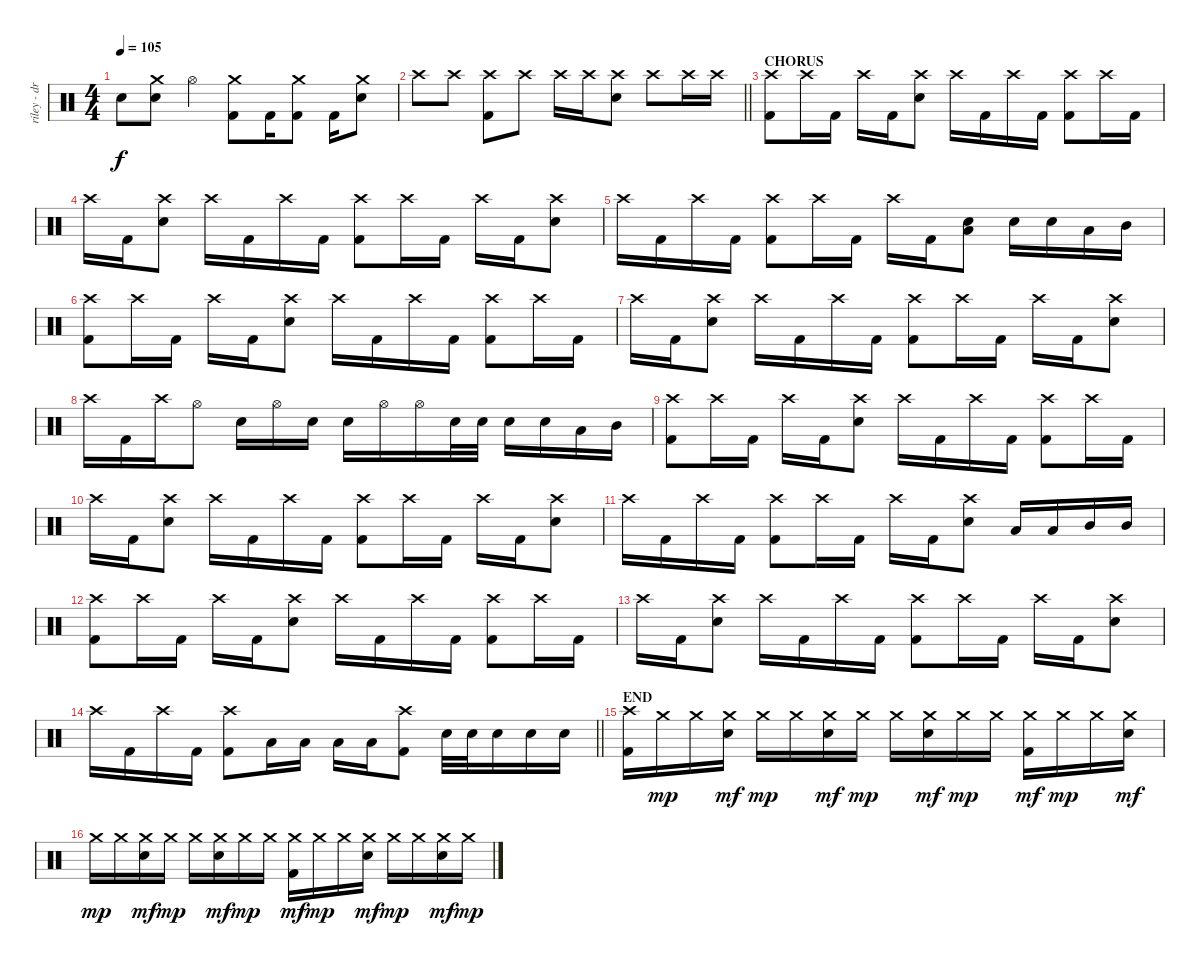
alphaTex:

\track ("riley - drums" "riley - dr") {instrument percussion}
\staff {score}
\articulation defaults
\ts (4 4)
\tempo 105
\clef neutral
\ks c "Snare (hit)"{t}.8{dy f}
("Electric Snare (hit)" "Crash medium (hit)").8 "Hi-Hat (open)".4 ("Crash medium (hit)" "Kick (hit) 2").8 "Kick (hit) 2".16 ("Crash medium (hit)" "Kick (hit) 2").8 "Kick (hit) 2".16 ("Crash medium (hit)" "Electric Snare (hit)").8 |
\barLineRight lightlight "Crash high (hit)".8 "Crash high (hit)".8
("Crash high (hit)" "Kick (hit) 2").8 "Crash high (hit)".8 "Crash high (hit)".16 "Crash high (hit)".16 ("Crash high (hit)" "Electric Snare (hit)").8 "Crash high (hit)".8 "Crash high (hit)".16 "Crash high (hit)".16 |
\section ("" "CHORUS")
("Kick (hit) 2" "Crash high (hit)").8 "Crash high (hit)".16 "Kick (hit) 2".16 "Crash high (hit)".16 "Kick (hit) 2".16 ("Electric Snare (hit)" "Crash high (hit)").8 "Crash high (hit)".16 "Kick (hit) 2".16 "Crash high (hit)".16 "Kick (hit) 2".16 ("Kick (hit) 2" "Crash high (hit)").8 "Crash high (hit)".16 "Kick (hit) 2".16 |
"Crash high (hit)".16 "Kick (hit) 2".16 ("Electric Snare (hit)" "Crash high (hit)").8 "Crash high (hit)".16 "Kick (hit) 2".16 "Crash high (hit)".16 "Kick (hit) 2".16 ("Kick (hit) 2" "Crash high (hit)").8 "Crash high (hit)".16 "Kick (hit) 2".16 "Crash high (hit)".16 "Kick (hit) 2".16 ("Electric Snare (hit)" "Crash high (hit)").8 |
"Crash high (hit)".16 "Kick (hit) 2".16 "Crash high (hit)".16 "Kick (hit) 2".16 ("Kick (hit) 2" "Crash high (hit)").8 "Crash high (hit)".16 "Kick (hit) 2".16 "Crash high (hit)".16 "Kick (hit) 2".16 ("Electric Snare (hit)" "Low Floor Tom (hit)").8 "Electric Snare (hit)".16 "Electric Snare (hit)".16 "Low Tom (hit)".16 "Mid Tom (hit)".16 |
("Kick (hit) 2" "Crash high (hit)").8 "Crash high (hit)".16 "Kick (hit) 2".16 "Crash high (hit)".16 "Kick (hit) 2".16 ("Electric Snare (hit)" "Crash high (hit)").8 "Crash high (hit)".16 "Kick (hit) 2".16 "Crash high (hit)".16 "Kick (hit) 2".16 ("Kick (hit) 2" "Crash high (hit)").8 "Crash high (hit)".16 "Kick (hit) 2".16 |
"Crash high (hit)".16 "Kick (hit) 2".16 ("Electric Snare (hit)" "Crash high (hit)").8 "Crash high (hit)".16 "Kick (hit) 2".16 "Crash high (hit)".16 "Kick (hit) 2".16 ("Kick (hit) 2" "Crash high (hit)").8 "Crash high (hit)".16 "Kick (hit) 2".16 "Crash high (hit)".16 "Kick (hit) 2".16 ("Electric Snare (hit)" "Crash high (hit)").8 |
"Crash high (hit)".16 "Kick (hit) 2".16 "Crash high (hit)".16 "Hi-Hat (open)".8 "Electric Snare (hit)".16 "Hi-Hat (open)".16 "Electric Snare (hit)".16 "Electric Snare (hit)".16 "Hi-Hat (open)".16 "Hi-Hat (open)".16 "Electric Snare (hit)".32 "Electric Snare (hit)".32 "Electric Snare (hit)".16 "Electric Snare (hit)".16 "Low Tom (hit)".16 "Mid Tom (hit)".16 |
("Kick (hit) 2" "Crash high (hit)").8 "Crash high (hit)".16 "Kick (hit) 2".16 "Crash high (hit)".16 "Kick (hit) 2".16 ("Electric Snare (hit)" "Crash high (hit)").8 "Crash high (hit)".16 "Kick (hit) 2".16 "Crash high (hit)".16 "Kick (hit) 2".16 ("Kick (hit) 2" "Crash high (hit)").8 "Crash high (hit)".16 "Kick (hit) 2".16 |
"Crash high (hit)".16 "Kick (hit) 2".16 ("Electric Snare (hit)" "Crash high (hit)").8 "Crash high (hit)".16 "Kick (hit) 2".16 "Crash high (hit)".16 "Kick (hit) 2".16 ("Kick (hit) 2" "Crash high (hit)").8 "Crash high (hit)".16 "Kick (hit) 2".16 "Crash high (hit)".16 "Kick (hit) 2".16 ("Electric Snare (hit)" "Crash high (hit)").8 |
"Crash high (hit)".16 "Kick (hit) 2".16 "Crash high (hit)".16 "Kick (hit) 2".16 ("Kick (hit) 2" "Crash high (hit)").8 "Crash high (hit)".16 "Kick (hit) 2".16 "Crash high (hit)".16 "Kick (hit) 2".16 ("Electric Snare (hit)" "Crash high (hit)").8 "Low Tom (hit)".16 "Low Tom (hit)".16 "Mid Tom (hit)".16 "Mid Tom (hit)".16 |
("Kick (hit) 2" "Crash high (hit)").8 "Crash high (hit)".16 "Kick (hit) 2".16 "Crash high (hit)".16 "Kick (hit) 2".16 ("Electric Snare (hit)" "Crash high (hit)").8 "Crash high (hit)".16 "Kick (hit) 2".16 "Crash high (hit)".16 "Kick (hit) 2".16 ("Kick (hit) 2" "Crash high (hit)").8 "Crash high (hit)".16 "Kick (hit) 2".16 |
"Crash high (hit)".16 "Kick (hit) 2".16 ("Electric Snare (hit)" "Crash high (hit)").8 "Crash high (hit)".16 "Kick (hit) 2".16 "Crash high (hit)".16 "Kick (hit) 2".16 ("Kick (hit) 2" "Crash high (hit)").8 "Crash high (hit)".16 "Kick (hit) 2".16 "Crash high (hit)".16 "Kick (hit) 2".16 ("Electric Snare (hit)" "Crash high (hit)").8 |
\barLineRight lightlight "Crash high (hit)".16 "Kick (hit) 2".16 "Crash high (hit)".16 "Kick (hit) 2".16
("Kick (hit) 2" "Crash high (hit)").8 "Low Tom (hit)".16 "Low Tom (hit)".16 "Low Floor Tom (hit)".16 "Low Floor Tom (hit)".16 ("Kick (hit) 2" "Crash high (hit)").8 "Electric Snare (hit)".32 "Electric Snare (hit)".32 "Electric Snare (hit)".16 "Electric Snare (hit)".16 "Electric Snare (hit)".16 |
\section ("" "END")
("Kick (hit) 2" "Crash high (hit)").16 "Crash medium (hit)".16{dy mp} "Crash medium (hit)".16 ("Electric Snare (hit)" "Crash medium (hit)").16{dy mf} "Crash medium (hit)".16{dy mp} "Crash medium (hit)".16 ("Electric Snare (hit)" "Crash medium (hit)").16{dy mf} "Crash medium (hit)".16{dy mp} "Crash medium (hit)".16 ("Electric Snare (hit)" "Crash medium (hit)").16{dy mf} "Crash medium (hit)".16{dy mp} "Crash medium (hit)".16 ("Kick (hit) 2" "Crash medium (hit)").16{dy mf} "Crash medium (hit)".16{dy mp} "Crash medium (hit)".16 ("Electric Snare (hit)" "Crash medium (hit)").16{dy mf} |
"Crash medium (hit)".16{dy mp} "Crash medium (hit)".16 ("Electric Snare (hit)" "Crash medium (hit)").16{dy mf} "Crash medium (hit)".16{dy mp} "Crash medium (hit)".16 ("Electric Snare (hit)" "Crash medium (hit)").16{dy mf} "Crash medium (hit)".16{dy mp} "Crash medium (hit)".16 ("Kick (hit) 2" "Crash medium (hit)").16{dy mf} "Crash medium (hit)".16{dy mp} "Crash medium (hit)".16 ("Electric Snare (hit)" "Crash medium (hit)").16{dy mf} "Crash medium (hit)".16{dy mp} "Crash medium (hit)".16 ("Electric Snare (hit)" "Crash medium (hit)").16{dy mf} "Crash medium (hit)".16{dy mp}
